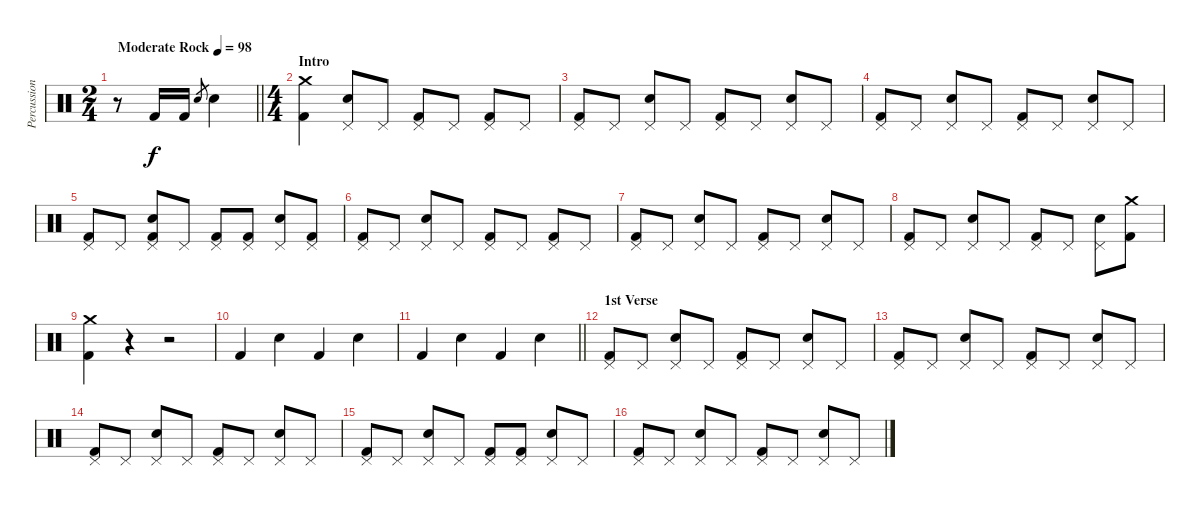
\track ("Percussion" "Percussion") {instrument percussion}
\staff {score}
\articulation defaults
\ts (2 4)
\tempo (98 "Moderate Rock")
\clef neutral
\barLineRight lightlight
\ks c
r.8{dy f} "Kick (hit) 2".16 "Kick (hit) 2".16 "Snare (hit) 2".8{gr} "Snare (hit) 2".4 |
\ts (4 4)
\section ("" "Intro")
("Crash medium (hit)" "Kick (hit) 2").4 ("Pedal Hi-Hat (hit)" "Snare (hit) 2").8 "Pedal Hi-Hat (hit)".8 ("Pedal Hi-Hat (hit)" "Kick (hit) 2").8 "Pedal Hi-Hat (hit)".8 ("Pedal Hi-Hat (hit)" "Kick (hit) 2").8 "Pedal Hi-Hat (hit)".8 |
("Pedal Hi-Hat (hit)" "Kick (hit) 2").8 "Pedal Hi-Hat (hit)".8 ("Pedal Hi-Hat (hit)" "Snare (hit) 2").8 "Pedal Hi-Hat (hit)".8 ("Pedal Hi-Hat (hit)" "Kick (hit) 2").8 "Pedal Hi-Hat (hit)".8 ("Pedal Hi-Hat (hit)" "Snare (hit) 2").8 "Pedal Hi-Hat (hit)".8 |
("Pedal Hi-Hat (hit)" "Kick (hit) 2").8 "Pedal Hi-Hat (hit)".8 ("Pedal Hi-Hat (hit)" "Snare (hit) 2").8 "Pedal Hi-Hat (hit)".8 ("Pedal Hi-Hat (hit)" "Kick (hit) 2").8 "Pedal Hi-Hat (hit)".8 ("Pedal Hi-Hat (hit)" "Snare (hit) 2").8 "Pedal Hi-Hat (hit)".8 |
("Pedal Hi-Hat (hit)" "Kick (hit) 2").8 "Pedal Hi-Hat (hit)".8 ("Pedal Hi-Hat (hit)" "Snare (hit) 2" "Kick (hit) 2").8 "Pedal Hi-Hat (hit)".8 ("Pedal Hi-Hat (hit)" "Kick (hit) 2").8 ("Pedal Hi-Hat (hit)" "Kick (hit) 2").8 ("Pedal Hi-Hat (hit)" "Snare (hit) 2").8 ("Pedal Hi-Hat (hit)" "Kick (hit) 2").8 |
("Pedal Hi-Hat (hit)" "Kick (hit) 2").8 "Pedal Hi-Hat (hit)".8 ("Pedal Hi-Hat (hit)" "Snare (hit) 2").8 "Pedal Hi-Hat (hit)".8 ("Pedal Hi-Hat (hit)" "Kick (hit) 2").8 "Pedal Hi-Hat (hit)".8 ("Pedal Hi-Hat (hit)" "Kick (hit) 2").8 "Pedal Hi-Hat (hit)".8 |
("Pedal Hi-Hat (hit)" "Kick (hit) 2").8 "Pedal Hi-Hat (hit)".8 ("Pedal Hi-Hat (hit)" "Snare (hit) 2").8 "Pedal Hi-Hat (hit)".8 ("Pedal Hi-Hat (hit)" "Kick (hit) 2").8 "Pedal Hi-Hat (hit)".8 ("Pedal Hi-Hat (hit)" "Snare (hit) 2").8 "Pedal Hi-Hat (hit)".8 |
("Pedal Hi-Hat (hit)" "Kick (hit) 2").8 "Pedal Hi-Hat (hit)".8 ("Pedal Hi-Hat (hit)" "Snare (hit) 2").8 "Pedal Hi-Hat (hit)".8 ("Pedal Hi-Hat (hit)" "Kick (hit) 2").8 "Pedal Hi-Hat (hit)".8 ("Pedal Hi-Hat (hit)" "Snare (hit) 2").8 ("Crash medium (hit)" "Kick (hit) 2").8 |
("Crash medium (hit)" "Kick (hit) 2").4 r.4 r.2 |
"Kick (hit) 2".4 "Snare (hit) 2".4 "Kick (hit) 2".4 "Snare (hit) 2".4 |
\barLineRight lightlight "Kick (hit) 2".4 "Snare (hit) 2".4 "Kick (hit) 2".4 "Snare (hit) 2".4
|
\section ("" "1st Verse")
("Pedal Hi-Hat (hit)" "Kick (hit) 2").8 "Pedal Hi-Hat (hit)".8 ("Pedal Hi-Hat (hit)" "Snare (hit) 2").8 "Pedal Hi-Hat (hit)".8 ("Pedal Hi-Hat (hit)" "Kick (hit) 2").8 "Pedal Hi-Hat (hit)".8 ("Pedal Hi-Hat (hit)" "Snare (hit) 2").8 "Pedal Hi-Hat (hit)".8 |
("Pedal Hi-Hat (hit)" "Kick (hit) 2").8 "Pedal Hi-Hat (hit)".8 ("Pedal Hi-Hat (hit)" "Snare (hit) 2").8 "Pedal Hi-Hat (hit)".8 ("Pedal Hi-Hat (hit)" "Kick (hit) 2").8 "Pedal Hi-Hat (hit)".8 ("Pedal Hi-Hat (hit)" "Snare (hit) 2").8 "Pedal Hi-Hat (hit)".8 |
("Pedal Hi-Hat (hit)" "Kick (hit) 2").8 "Pedal Hi-Hat (hit)".8 ("Pedal Hi-Hat (hit)" "Snare (hit) 2").8 "Pedal Hi-Hat (hit)".8 ("Pedal Hi-Hat (hit)" "Kick (hit) 2").8 "Pedal Hi-Hat (hit)".8 ("Pedal Hi-Hat (hit)" "Snare (hit) 2").8 "Pedal Hi-Hat (hit)".8 |
("Pedal Hi-Hat (hit)" "Kick (hit) 2").8 "Pedal Hi-Hat (hit)".8 ("Pedal Hi-Hat (hit)" "Snare (hit) 2").8 "Pedal Hi-Hat (hit)".8 ("Pedal Hi-Hat (hit)" "Kick (hit) 2").8 ("Pedal Hi-Hat (hit)" "Kick (hit) 2").8 ("Pedal Hi-Hat (hit)" "Snare (hit) 2").8 "Pedal Hi-Hat (hit)".8 |
("Pedal Hi-Hat (hit)" "Kick (hit) 2").8 "Pedal Hi-Hat (hit)".8 ("Pedal Hi-Hat (hit)" "Snare (hit) 2").8 "Pedal Hi-Hat (hit)".8 ("Pedal Hi-Hat (hit)" "Kick (hit) 2").8 "Pedal Hi-Hat (hit)".8 ("Pedal Hi-Hat (hit)" "Snare (hit) 2").8 "Pedal Hi-Hat (hit)".8
